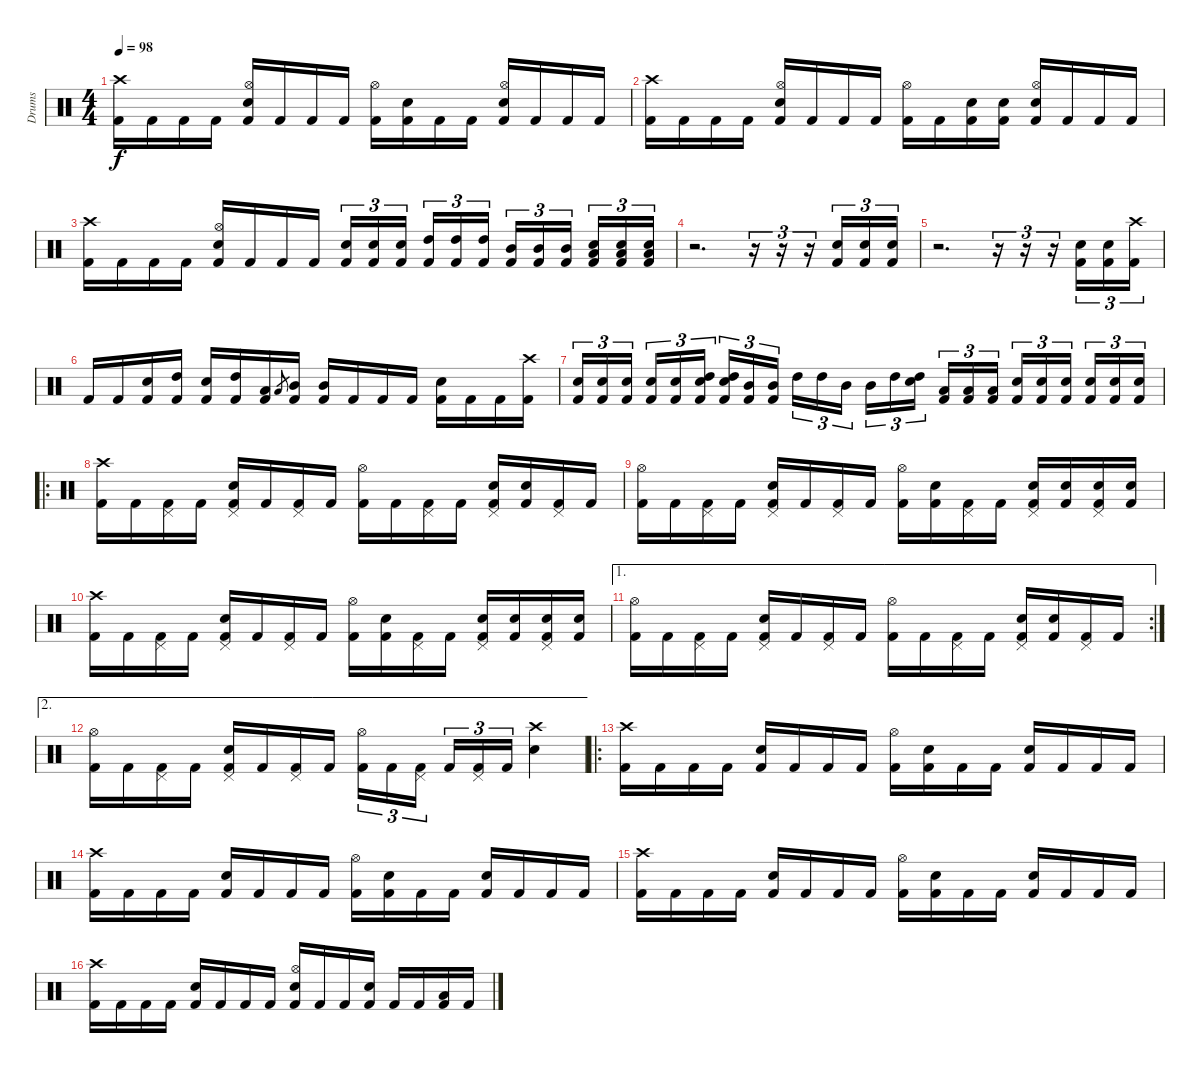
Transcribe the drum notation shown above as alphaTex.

\track ("Drums" "Drums") {instrument percussion}
\staff {score}
\articulation defaults
\ts (4 4)
\tempo 98
\clef neutral
\ks c
("Crash high (hit)" "Kick (hit) 2").16{dy f} "Kick (hit) 2".16 "Kick (hit) 2".16 "Kick (hit) 2".16 ("Hi-Hat (open)" "Electric Snare (hit)" "Kick (hit) 2").16 "Kick (hit) 2".16 "Kick (hit) 2".16 "Kick (hit) 2".16 ("Hi-Hat (open)" "Kick (hit) 2").16 ("Electric Snare (hit)" "Kick (hit) 2").16 "Kick (hit) 2".16 "Kick (hit) 2".16 ("Hi-Hat (open)" "Electric Snare (hit)" "Kick (hit) 2").16 "Kick (hit) 2".16 "Kick (hit) 2".16 "Kick (hit) 2".16 |
("Crash high (hit)" "Kick (hit) 2").16 "Kick (hit) 2".16 "Kick (hit) 2".16 "Kick (hit) 2".16 ("Hi-Hat (open)" "Electric Snare (hit)" "Kick (hit) 2").16 "Kick (hit) 2".16 "Kick (hit) 2".16 "Kick (hit) 2".16 ("Hi-Hat (open)" "Kick (hit) 2").16 "Kick (hit) 2".16 ("Electric Snare (hit)" "Kick (hit) 2").16 ("Electric Snare (hit)" "Kick (hit) 2").16 ("Hi-Hat (open)" "Electric Snare (hit)" "Kick (hit) 2").16 "Kick (hit) 2".16 "Kick (hit) 2".16 "Kick (hit) 2".16 |
("Crash high (hit)" "Kick (hit) 2").16 "Kick (hit) 2".16 "Kick (hit) 2".16 "Kick (hit) 2".16 ("Hi-Hat (open)" "Electric Snare (hit)" "Kick (hit) 2").16 "Kick (hit) 2".16 "Kick (hit) 2".16 "Kick (hit) 2".16 ("Electric Snare (hit)" "Kick (hit) 2").16{tu (3 2)} ("Electric Snare (hit)" "Kick (hit) 2").16{tu (3 2)} ("Electric Snare (hit)" "Kick (hit) 2").16{tu (3 2)} ("High Tom (hit)" "Kick (hit) 2").16{tu (3 2)} ("High Tom (hit)" "Kick (hit) 2").16{tu (3 2)} ("High Tom (hit)" "Kick (hit) 2").16{tu (3 2)} ("Mid Tom (hit)" "Kick (hit) 2").16{tu (3 2)} ("Mid Tom (hit)" "Kick (hit) 2").16{tu (3 2)} ("Mid Tom (hit)" "Kick (hit) 2").16{tu (3 2)} ("Low Tom (hit)" "Electric Snare (hit)" "Kick (hit) 2").16{tu (3 2)} ("Low Tom (hit)" "Electric Snare (hit)" "Kick (hit) 2").16{tu (3 2)} ("Low Tom (hit)" "Electric Snare (hit)" "Kick (hit) 2").16{tu (3 2)} |
r.2{d} r.16{tu (3 2)} r.16{tu (3 2)} r.16{tu (3 2)} ("Electric Snare (hit)" "Kick (hit) 2").16{tu (3 2)} ("Electric Snare (hit)" "Kick (hit) 2").16{tu (3 2)} ("Electric Snare (hit)" "Kick (hit) 2").16{tu (3 2)} |
r.2{d} r.16{tu (3 2)} r.16{tu (3 2)} r.16{tu (3 2)} ("Electric Snare (hit)" "Kick (hit) 2").16{tu (3 2)} ("Electric Snare (hit)" "Kick (hit) 2").16{tu (3 2)} ("Crash high (hit)" "Kick (hit) 2").16{tu (3 2)} |
"Kick (hit) 2".16 "Kick (hit) 2".16 ("Electric Snare (hit)" "Kick (hit) 2").16 ("High Tom (hit)" "Kick (hit) 2").16 ("Electric Snare (hit)" "Kick (hit) 2").16 ("High Tom (hit)" "Kick (hit) 2").16 ("Low Floor Tom (hit)" "Kick (hit) 2").16 "Low Tom (hit)".8{gr} ("Mid Tom (hit)" "Kick (hit) 2").16 ("Mid Tom (hit)" "Kick (hit) 2").16 "Kick (hit) 2".16 "Kick (hit) 2".16 "Kick (hit) 2".16 ("Electric Snare (hit)" "Kick (hit) 2").16 "Kick (hit) 2".16 "Kick (hit) 2".16 ("Crash high (hit)" "Kick (hit) 2").16 |
("Electric Snare (hit)" "Kick (hit) 2").16{tu (3 2)} ("Electric Snare (hit)" "Kick (hit) 2").16{tu (3 2)} ("Electric Snare (hit)" "Kick (hit) 2").16{tu (3 2)} ("Electric Snare (hit)" "Kick (hit) 2").16{tu (3 2)} ("Electric Snare (hit)" "Kick (hit) 2").16{tu (3 2)} ("High Tom (hit)" "Electric Snare (hit)" "Kick (hit) 2").16{tu (3 2)} ("High Tom (hit)" "Electric Snare (hit)" "Kick (hit) 2").16{tu (3 2)} ("Mid Tom (hit)" "Kick (hit) 2").16{tu (3 2)} ("Mid Tom (hit)" "Kick (hit) 2").16{tu (3 2)} "High Tom (hit)".16{tu (3 2)} "High Tom (hit)".16{tu (3 2)} "Mid Tom (hit)".16{tu (3 2)} "Mid Tom (hit)".16{tu (3 2)} "High Tom (hit)".16{tu (3 2)} ("High Tom (hit)" "Electric Snare (hit)").16{tu (3 2)} ("Low Tom (hit)" "Kick (hit) 2").16{tu (3 2)} ("Low Tom (hit)" "Kick (hit) 2").16{tu (3 2)} ("Low Tom (hit)" "Kick (hit) 2").16{tu (3 2)} ("Electric Snare (hit)" "Kick (hit) 2").16{tu (3 2)} ("Electric Snare (hit)" "Kick (hit) 2").16{tu (3 2)} ("Electric Snare (hit)" "Kick (hit) 2").16{tu (3 2)} ("Electric Snare (hit)" "Kick (hit) 2").16{tu (3 2)} ("Electric Snare (hit)" "Kick (hit) 2").16{tu (3 2)} ("Electric Snare (hit)" "Kick (hit) 2").16{tu (3 2)} |
\ro
("Crash high (hit)" "Kick (hit) 2").16 "Kick (hit) 2".16 ("Pedal Hi-Hat (hit)" "Kick (hit) 2").16 "Kick (hit) 2".16 ("Pedal Hi-Hat (hit)" "Electric Snare (hit)" "Kick (hit) 2").16 "Kick (hit) 2".16 ("Pedal Hi-Hat (hit)" "Kick (hit) 2").16 "Kick (hit) 2".16 ("Hi-Hat (open)" "Kick (hit) 2").16 "Kick (hit) 2".16 ("Pedal Hi-Hat (hit)" "Kick (hit) 2").16 "Kick (hit) 2".16 ("Pedal Hi-Hat (hit)" "Electric Snare (hit)" "Kick (hit) 2").16 ("Electric Snare (hit)" "Kick (hit) 2").16 ("Pedal Hi-Hat (hit)" "Kick (hit) 2").16 "Kick (hit) 2".16 |
("Hi-Hat (open)" "Kick (hit) 2").16 "Kick (hit) 2".16 ("Pedal Hi-Hat (hit)" "Kick (hit) 2").16 "Kick (hit) 2".16 ("Pedal Hi-Hat (hit)" "Electric Snare (hit)" "Kick (hit) 2").16 "Kick (hit) 2".16 ("Pedal Hi-Hat (hit)" "Kick (hit) 2").16 "Kick (hit) 2".16 ("Hi-Hat (open)" "Kick (hit) 2").16 ("Electric Snare (hit)" "Kick (hit) 2").16 ("Pedal Hi-Hat (hit)" "Kick (hit) 2").16 "Kick (hit) 2".16 ("Pedal Hi-Hat (hit)" "Electric Snare (hit)" "Kick (hit) 2").16 ("Electric Snare (hit)" "Kick (hit) 2").16 ("Pedal Hi-Hat (hit)" "Electric Snare (hit)" "Kick (hit) 2").16 ("Electric Snare (hit)" "Kick (hit) 2").16 |
("Crash high (hit)" "Kick (hit) 2").16 "Kick (hit) 2".16 ("Pedal Hi-Hat (hit)" "Kick (hit) 2").16 "Kick (hit) 2".16 ("Pedal Hi-Hat (hit)" "Electric Snare (hit)" "Kick (hit) 2").16 "Kick (hit) 2".16 ("Pedal Hi-Hat (hit)" "Kick (hit) 2").16 "Kick (hit) 2".16 ("Hi-Hat (open)" "Kick (hit) 2").16 ("Electric Snare (hit)" "Kick (hit) 2").16 ("Pedal Hi-Hat (hit)" "Kick (hit) 2").16 "Kick (hit) 2".16 ("Pedal Hi-Hat (hit)" "Electric Snare (hit)" "Kick (hit) 2").16 ("Electric Snare (hit)" "Kick (hit) 2").16 ("Pedal Hi-Hat (hit)" "Electric Snare (hit)" "Kick (hit) 2").16 ("Electric Snare (hit)" "Kick (hit) 2").16 |
\ae 1
\rc 2
("Hi-Hat (open)" "Kick (hit) 2").16 "Kick (hit) 2".16 ("Pedal Hi-Hat (hit)" "Kick (hit) 2").16 "Kick (hit) 2".16 ("Pedal Hi-Hat (hit)" "Electric Snare (hit)" "Kick (hit) 2").16 "Kick (hit) 2".16 ("Pedal Hi-Hat (hit)" "Kick (hit) 2").16 "Kick (hit) 2".16 ("Hi-Hat (open)" "Kick (hit) 2").16 "Kick (hit) 2".16 ("Pedal Hi-Hat (hit)" "Kick (hit) 2").16 "Kick (hit) 2".16 ("Pedal Hi-Hat (hit)" "Electric Snare (hit)" "Kick (hit) 2").16 ("Electric Snare (hit)" "Kick (hit) 2").16 ("Pedal Hi-Hat (hit)" "Kick (hit) 2").16 "Kick (hit) 2".16 |
\ae 2
("Hi-Hat (open)" "Kick (hit) 2").16 "Kick (hit) 2".16 ("Pedal Hi-Hat (hit)" "Kick (hit) 2").16 "Kick (hit) 2".16 ("Pedal Hi-Hat (hit)" "Electric Snare (hit)" "Kick (hit) 2").16 "Kick (hit) 2".16 ("Pedal Hi-Hat (hit)" "Kick (hit) 2").16 "Kick (hit) 2".16 ("Hi-Hat (open)" "Kick (hit) 2").16{tu (3 2)} "Kick (hit) 2".16{tu (3 2)} ("Pedal Hi-Hat (hit)" "Kick (hit) 2").16{tu (3 2)} "Kick (hit) 2".16{tu (3 2)} ("Pedal Hi-Hat (hit)" "Kick (hit) 2").16{tu (3 2)} "Kick (hit) 2".16{tu (3 2)} ("Crash high (hit)" "Electric Snare (hit)").4 |
\ro
("Crash high (hit)" "Kick (hit) 2").16 "Kick (hit) 2".16 "Kick (hit) 2".16 "Kick (hit) 2".16 ("Electric Snare (hit)" "Kick (hit) 2").16 "Kick (hit) 2".16 "Kick (hit) 2".16 "Kick (hit) 2".16 ("Hi-Hat (open)" "Kick (hit) 2").16 ("Electric Snare (hit)" "Kick (hit) 2").16 "Kick (hit) 2".16 "Kick (hit) 2".16 ("Electric Snare (hit)" "Kick (hit) 2").16 "Kick (hit) 2".16 "Kick (hit) 2".16 "Kick (hit) 2".16 |
("Crash high (hit)" "Kick (hit) 2").16 "Kick (hit) 2".16 "Kick (hit) 2".16 "Kick (hit) 2".16 ("Electric Snare (hit)" "Kick (hit) 2").16 "Kick (hit) 2".16 "Kick (hit) 2".16 "Kick (hit) 2".16 ("Hi-Hat (open)" "Kick (hit) 2").16 ("Electric Snare (hit)" "Kick (hit) 2").16 "Kick (hit) 2".16 "Kick (hit) 2".16 ("Electric Snare (hit)" "Kick (hit) 2").16 "Kick (hit) 2".16 "Kick (hit) 2".16 "Kick (hit) 2".16 |
("Crash high (hit)" "Kick (hit) 2").16 "Kick (hit) 2".16 "Kick (hit) 2".16 "Kick (hit) 2".16 ("Electric Snare (hit)" "Kick (hit) 2").16 "Kick (hit) 2".16 "Kick (hit) 2".16 "Kick (hit) 2".16 ("Hi-Hat (open)" "Kick (hit) 2").16 ("Electric Snare (hit)" "Kick (hit) 2").16 "Kick (hit) 2".16 "Kick (hit) 2".16 ("Electric Snare (hit)" "Kick (hit) 2").16 "Kick (hit) 2".16 "Kick (hit) 2".16 "Kick (hit) 2".16 |
("Crash high (hit)" "Kick (hit) 2").16 "Kick (hit) 2".16 "Kick (hit) 2".16 "Kick (hit) 2".16 ("Electric Snare (hit)" "Kick (hit) 2").16 "Kick (hit) 2".16 "Kick (hit) 2".16 "Kick (hit) 2".16 ("Hi-Hat (open)" "Electric Snare (hit)" "Kick (hit) 2").16 "Kick (hit) 2".16 "Kick (hit) 2".16 ("Electric Snare (hit)" "Kick (hit) 2").16 "Kick (hit) 2".16 "Kick (hit) 2".16 ("Low Tom (hit)" "Kick (hit) 2").16 "Kick (hit) 2".16
